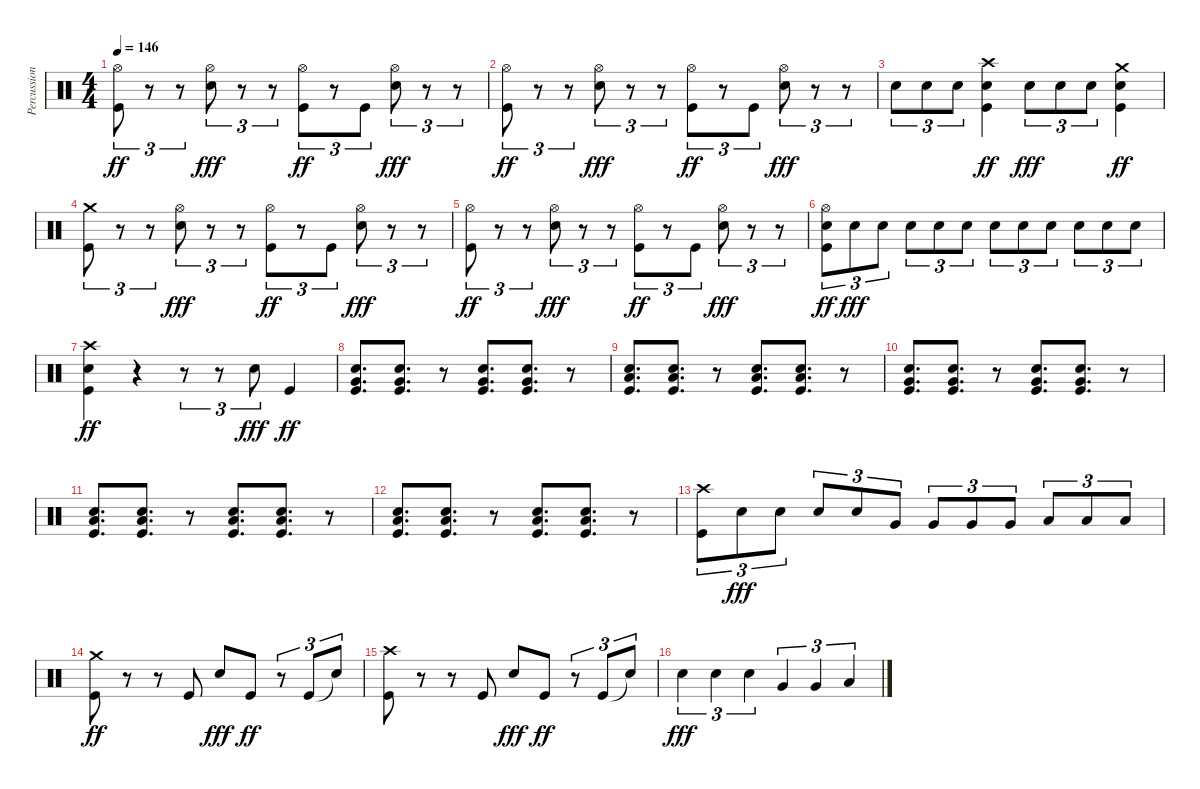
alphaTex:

\track ("Percussion" "Percussion") {instrument percussion}
\staff {score}
\articulation defaults
\ts (4 4)
\tempo 146
\clef neutral
\ks c
("Hi-Hat (open)" "Kick (hit)").8{tu (3 2) dy ff} r.8{tu (3 2)} r.8{tu (3 2)} ("Hi-Hat (open)" "Snare (hit) 2").8{tu (3 2) dy fff} r.8{tu (3 2)} r.8{tu (3 2)} ("Hi-Hat (open)" "Kick (hit)").8{tu (3 2) dy ff} r.8{tu (3 2)} "Kick (hit)".8{tu (3 2)} ("Hi-Hat (open)" "Snare (hit) 2").8{tu (3 2) dy fff} r.8{tu (3 2)} r.8{tu (3 2)} |
("Hi-Hat (open)" "Kick (hit)").8{tu (3 2) dy ff} r.8{tu (3 2)} r.8{tu (3 2)} ("Hi-Hat (open)" "Snare (hit) 2").8{tu (3 2) dy fff} r.8{tu (3 2)} r.8{tu (3 2)} ("Hi-Hat (open)" "Kick (hit)").8{tu (3 2) dy ff} r.8{tu (3 2)} "Kick (hit)".8{tu (3 2)} ("Hi-Hat (open)" "Snare (hit) 2").8{tu (3 2) dy fff} r.8{tu (3 2)} r.8{tu (3 2)} |
"Snare (hit) 2".8{tu (3 2)} "Snare (hit) 2".8{tu (3 2)} "Snare (hit) 2".8{tu (3 2)} ("Crash high (hit)" "Snare (hit) 2" "Kick (hit)").4{dy ff} "Snare (hit) 2".8{tu (3 2) dy fff} "Snare (hit) 2".8{tu (3 2)} "Snare (hit) 2".8{tu (3 2)} ("Crash medium (hit)" "Snare (hit) 2" "Kick (hit)").4{dy ff} |
("Crash medium (hit)" "Kick (hit)").8{tu (3 2)} r.8{tu (3 2)} r.8{tu (3 2)} ("Hi-Hat (open)" "Snare (hit) 2").8{tu (3 2) dy fff} r.8{tu (3 2)} r.8{tu (3 2)} ("Hi-Hat (open)" "Kick (hit)").8{tu (3 2) dy ff} r.8{tu (3 2)} "Kick (hit)".8{tu (3 2)} ("Hi-Hat (open)" "Snare (hit) 2").8{tu (3 2) dy fff} r.8{tu (3 2)} r.8{tu (3 2)} |
("Hi-Hat (open)" "Kick (hit)").8{tu (3 2) dy ff} r.8{tu (3 2)} r.8{tu (3 2)} ("Hi-Hat (open)" "Snare (hit) 2").8{tu (3 2) dy fff} r.8{tu (3 2)} r.8{tu (3 2)} ("Hi-Hat (open)" "Kick (hit)").8{tu (3 2) dy ff} r.8{tu (3 2)} "Kick (hit)".8{tu (3 2)} ("Hi-Hat (open)" "Snare (hit) 2").8{tu (3 2) dy fff} r.8{tu (3 2)} r.8{tu (3 2)} |
("Hi-Hat (open)" "Snare (hit) 2" "Kick (hit)").8{tu (3 2) dy ff} "Snare (hit) 2".8{tu (3 2) dy fff} "Snare (hit) 2".8{tu (3 2)} "Snare (hit) 2".8{tu (3 2)} "Snare (hit) 2".8{tu (3 2)} "Snare (hit) 2".8{tu (3 2)} "Snare (hit) 2".8{tu (3 2)} "Snare (hit) 2".8{tu (3 2)} "Snare (hit) 2".8{tu (3 2)} "Snare (hit) 2".8{tu (3 2)} "Snare (hit) 2".8{tu (3 2)} "Snare (hit) 2".8{tu (3 2)} |
("Crash high (hit)" "Snare (hit) 2" "Kick (hit)").4{dy ff} r.4 r.8{tu (3 2)} r.8{tu (3 2)} "Snare (hit) 2".8{tu (3 2) dy fff} "Kick (hit)".4{dy ff} |
("Very Low Tom (hit)" "Snare (hit) 2" "Kick (hit)").8{d} ("Very Low Tom (hit)" "Snare (hit) 2" "Kick (hit)").8{d} r.8 ("Very Low Tom (hit)" "Snare (hit) 2" "Kick (hit)").8{d} ("Very Low Tom (hit)" "Snare (hit) 2" "Kick (hit)").8{d} r.8 |
("Low Floor Tom (hit)" "Snare (hit) 2" "Kick (hit)").8{d} ("Low Floor Tom (hit)" "Snare (hit) 2" "Kick (hit)").8{d} r.8 ("Low Floor Tom (hit)" "Snare (hit) 2" "Kick (hit)").8{d} ("Low Floor Tom (hit)" "Snare (hit) 2" "Kick (hit)").8{d} r.8 |
("Very Low Tom (hit)" "Snare (hit) 2" "Kick (hit)").8{d} ("Very Low Tom (hit)" "Snare (hit) 2" "Kick (hit)").8{d} r.8 ("Very Low Tom (hit)" "Snare (hit) 2" "Kick (hit)").8{d} ("Very Low Tom (hit)" "Snare (hit) 2" "Kick (hit)").8{d} r.8 |
("Low Floor Tom (hit)" "Snare (hit) 2" "Kick (hit)").8{d} ("Low Floor Tom (hit)" "Snare (hit) 2" "Kick (hit)").8{d} r.8 ("Low Floor Tom (hit)" "Snare (hit) 2" "Kick (hit)").8{d} ("Low Floor Tom (hit)" "Snare (hit) 2" "Kick (hit)").8{d} r.8 |
("Low Floor Tom (hit)" "Snare (hit) 2" "Kick (hit)").8{d} ("Low Floor Tom (hit)" "Snare (hit) 2" "Kick (hit)").8{d} r.8 ("Low Floor Tom (hit)" "Snare (hit) 2" "Kick (hit)").8{d} ("Low Floor Tom (hit)" "Snare (hit) 2" "Kick (hit)").8{d} r.8 |
("Crash high (hit)" "Kick (hit)").8{tu (3 2)} "Snare (hit) 2".8{tu (3 2) dy fff} "Snare (hit) 2".8{tu (3 2)} "Snare (hit) 2".8{tu (3 2)} "Snare (hit) 2".8{tu (3 2)} "Very Low Tom (hit)".8{tu (3 2)} "Very Low Tom (hit)".8{tu (3 2)} "Very Low Tom (hit)".8{tu (3 2)} "Very Low Tom (hit)".8{tu (3 2)} "Low Floor Tom (hit)".8{tu (3 2)} "Low Floor Tom (hit)".8{tu (3 2)} "Low Floor Tom (hit)".8{tu (3 2)} |
("Crash medium (hit)" "Kick (hit)").8{dy ff} r.8 r.8 "Kick (hit)".8 "Snare (hit) 2".8{dy fff} "Kick (hit)".8{dy ff} r.8{tu (3 2)} "Kick (hit)".8{tu (3 2)} "Snare (hit)"{t}.8{tu (3 2)} |
("Crash high (hit)" "Kick (hit)").8 r.8 r.8 "Kick (hit)".8 "Snare (hit) 2".8{dy fff} "Kick (hit)".8{dy ff} r.8{tu (3 2)} "Kick (hit)".8{tu (3 2)} "Snare (hit)"{t}.8{tu (3 2)} |
"Snare (hit) 2".4{tu (3 2) dy fff} "Snare (hit) 2".4{tu (3 2)} "Snare (hit) 2".4{tu (3 2)} "Very Low Tom (hit)".4{tu (3 2)} "Very Low Tom (hit)".4{tu (3 2)} "Low Floor Tom (hit)".4{tu (3 2)}
